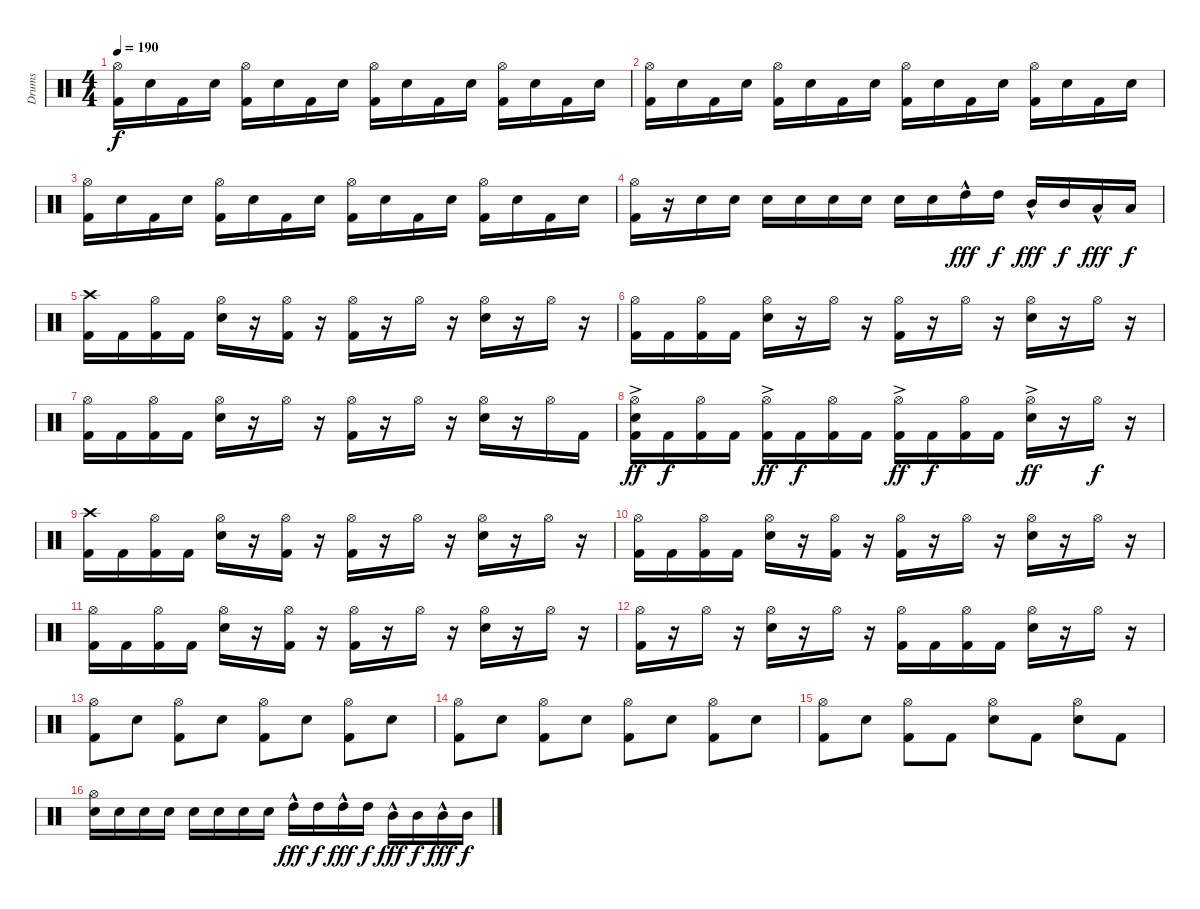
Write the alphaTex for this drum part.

\track ("Drums" "Drums") {instrument percussion}
\staff {score}
\articulation defaults
\ts (4 4)
\tempo 190
\clef neutral
\ks aminor
("Kick (hit) 2" "Hi-Hat (open)").16{dy f} "Electric Snare (hit)".16 "Kick (hit) 2".16 "Electric Snare (hit)".16 ("Kick (hit) 2" "Hi-Hat (open)").16 "Electric Snare (hit)".16 "Kick (hit) 2".16 "Electric Snare (hit)".16 ("Kick (hit) 2" "Hi-Hat (open)").16 "Electric Snare (hit)".16 "Kick (hit) 2".16 "Electric Snare (hit)".16 ("Kick (hit) 2" "Hi-Hat (open)").16 "Electric Snare (hit)".16 "Kick (hit) 2".16 "Electric Snare (hit)".16 |
("Kick (hit) 2" "Hi-Hat (open)").16 "Electric Snare (hit)".16 "Kick (hit) 2".16 "Electric Snare (hit)".16 ("Kick (hit) 2" "Hi-Hat (open)").16 "Electric Snare (hit)".16 "Kick (hit) 2".16 "Electric Snare (hit)".16 ("Kick (hit) 2" "Hi-Hat (open)").16 "Electric Snare (hit)".16 "Kick (hit) 2".16 "Electric Snare (hit)".16 ("Kick (hit) 2" "Hi-Hat (open)").16 "Electric Snare (hit)".16 "Kick (hit) 2".16 "Electric Snare (hit)".16 |
("Kick (hit) 2" "Hi-Hat (open)").16 "Electric Snare (hit)".16 "Kick (hit) 2".16 "Electric Snare (hit)".16 ("Kick (hit) 2" "Hi-Hat (open)").16 "Electric Snare (hit)".16 "Kick (hit) 2".16 "Electric Snare (hit)".16 ("Kick (hit) 2" "Hi-Hat (open)").16 "Electric Snare (hit)".16 "Kick (hit) 2".16 "Electric Snare (hit)".16 ("Kick (hit) 2" "Hi-Hat (open)").16 "Electric Snare (hit)".16 "Kick (hit) 2".16 "Electric Snare (hit)".16 |
("Kick (hit) 2" "Hi-Hat (open)").16 r.16 "Electric Snare (hit)".16 "Electric Snare (hit)".16 "Electric Snare (hit)".16 "Electric Snare (hit)".16 "Electric Snare (hit)".16 "Electric Snare (hit)".16 "Electric Snare (hit)".16 "Electric Snare (hit)".16 "High Tom (hit)"{hac}.16{dy fff} "High Tom (hit)".16{dy f} "Mid Tom (hit)"{hac}.16{dy fff} "Mid Tom (hit)".16{dy f} "Low Tom (hit)"{hac}.16{dy fff} "Low Tom (hit)".16{dy f} |
("Kick (hit) 2" "Crash high (hit)").16 "Kick (hit) 2".16 ("Kick (hit) 2" "Hi-Hat (open)").16 "Kick (hit) 2".16 ("Electric Snare (hit)" "Hi-Hat (open)").16 r.16 ("Kick (hit) 2" "Hi-Hat (open)").16 r.16 ("Kick (hit) 2" "Hi-Hat (open)").16 r.16 "Hi-Hat (open)".16 r.16 ("Electric Snare (hit)" "Hi-Hat (open)").16 r.16 "Hi-Hat (open)".16 r.16 |
("Kick (hit) 2" "Hi-Hat (open)").16 "Kick (hit) 2".16 ("Kick (hit) 2" "Hi-Hat (open)").16 "Kick (hit) 2".16 ("Electric Snare (hit)" "Hi-Hat (open)").16 r.16 "Hi-Hat (open)".16 r.16 ("Kick (hit) 2" "Hi-Hat (open)").16 r.16 "Hi-Hat (open)".16 r.16 ("Electric Snare (hit)" "Hi-Hat (open)").16 r.16 "Hi-Hat (open)".16 r.16 |
("Kick (hit) 2" "Hi-Hat (open)").16 "Kick (hit) 2".16 ("Kick (hit) 2" "Hi-Hat (open)").16 "Kick (hit) 2".16 ("Electric Snare (hit)" "Hi-Hat (open)").16 r.16 "Hi-Hat (open)".16 r.16 ("Kick (hit) 2" "Hi-Hat (open)").16 r.16 "Hi-Hat (open)".16 r.16 ("Electric Snare (hit)" "Hi-Hat (open)").16 r.16 "Hi-Hat (open)".16 "Kick (hit) 2".16 |
("Kick (hit) 2" "Electric Snare (hit)" "Hi-Hat (open)"{ac}).16{dy ff} "Kick (hit) 2".16{dy f} ("Kick (hit) 2" "Hi-Hat (open)").16 "Kick (hit) 2".16 ("Kick (hit) 2" "Hi-Hat (open)"{ac}).16{dy ff} "Kick (hit) 2".16{dy f} ("Kick (hit) 2" "Hi-Hat (open)").16 "Kick (hit) 2".16 ("Kick (hit) 2" "Hi-Hat (open)"{ac}).16{dy ff} "Kick (hit) 2".16{dy f} ("Kick (hit) 2" "Hi-Hat (open)").16 "Kick (hit) 2".16 ("Electric Snare (hit)" "Hi-Hat (open)"{ac}).16{dy ff} r.16 "Hi-Hat (open)".16{dy f} r.16 |
("Kick (hit) 2" "Crash high (hit)").16 "Kick (hit) 2".16 ("Kick (hit) 2" "Hi-Hat (open)").16 "Kick (hit) 2".16 ("Electric Snare (hit)" "Hi-Hat (open)").16 r.16 ("Kick (hit) 2" "Hi-Hat (open)").16 r.16 ("Kick (hit) 2" "Hi-Hat (open)").16 r.16 "Hi-Hat (open)".16 r.16 ("Electric Snare (hit)" "Hi-Hat (open)").16 r.16 "Hi-Hat (open)".16 r.16 |
("Kick (hit) 2" "Hi-Hat (open)").16 "Kick (hit) 2".16 ("Kick (hit) 2" "Hi-Hat (open)").16 "Kick (hit) 2".16 ("Electric Snare (hit)" "Hi-Hat (open)").16 r.16 ("Kick (hit) 2" "Hi-Hat (open)").16 r.16 ("Kick (hit) 2" "Hi-Hat (open)").16 r.16 "Hi-Hat (open)".16 r.16 ("Electric Snare (hit)" "Hi-Hat (open)").16 r.16 "Hi-Hat (open)".16 r.16 |
("Kick (hit) 2" "Hi-Hat (open)").16 "Kick (hit) 2".16 ("Kick (hit) 2" "Hi-Hat (open)").16 "Kick (hit) 2".16 ("Electric Snare (hit)" "Hi-Hat (open)").16 r.16 ("Kick (hit) 2" "Hi-Hat (open)").16 r.16 ("Kick (hit) 2" "Hi-Hat (open)").16 r.16 "Hi-Hat (open)".16 r.16 ("Electric Snare (hit)" "Hi-Hat (open)").16 r.16 "Hi-Hat (open)".16 r.16 |
("Kick (hit) 2" "Hi-Hat (open)").16 r.16 "Hi-Hat (open)".16 r.16 ("Electric Snare (hit)" "Hi-Hat (open)").16 r.16 "Hi-Hat (open)".16 r.16 ("Kick (hit) 2" "Hi-Hat (open)").16 "Kick (hit) 2".16 ("Kick (hit) 2" "Hi-Hat (open)").16 "Kick (hit) 2".16 ("Electric Snare (hit)" "Hi-Hat (open)").16 r.16 "Hi-Hat (open)".16 r.16 |
("Kick (hit) 2" "Hi-Hat (open)").8 "Electric Snare (hit)".8 ("Kick (hit) 2" "Hi-Hat (open)").8 "Electric Snare (hit)".8 ("Kick (hit) 2" "Hi-Hat (open)").8 "Electric Snare (hit)".8 ("Kick (hit) 2" "Hi-Hat (open)").8 "Electric Snare (hit)".8 |
("Kick (hit) 2" "Hi-Hat (open)").8 "Electric Snare (hit)".8 ("Kick (hit) 2" "Hi-Hat (open)").8 "Electric Snare (hit)".8 ("Kick (hit) 2" "Hi-Hat (open)").8 "Electric Snare (hit)".8 ("Kick (hit) 2" "Hi-Hat (open)").8 "Electric Snare (hit)".8 |
("Kick (hit) 2" "Hi-Hat (open)").8 "Electric Snare (hit)".8 ("Kick (hit) 2" "Hi-Hat (open)").8 "Kick (hit) 2".8 ("Electric Snare (hit)" "Hi-Hat (open)").8 "Kick (hit) 2".8 ("Electric Snare (hit)" "Hi-Hat (open)").8 "Kick (hit) 2".8 |
("Electric Snare (hit)" "Hi-Hat (open)").16 "Electric Snare (hit)".16 "Electric Snare (hit)".16 "Electric Snare (hit)".16 "Electric Snare (hit)".16 "Electric Snare (hit)".16 "Electric Snare (hit)".16 "Electric Snare (hit)".16 "High Tom (hit)"{hac}.16{dy fff} "High Tom (hit)".16{dy f} "High Tom (hit)"{hac}.16{dy fff} "High Tom (hit)".16{dy f} "Mid Tom (hit)"{hac}.16{dy fff} "Mid Tom (hit)".16{dy f} "Mid Tom (hit)"{hac}.16{dy fff} "Mid Tom (hit)".16{dy f}
